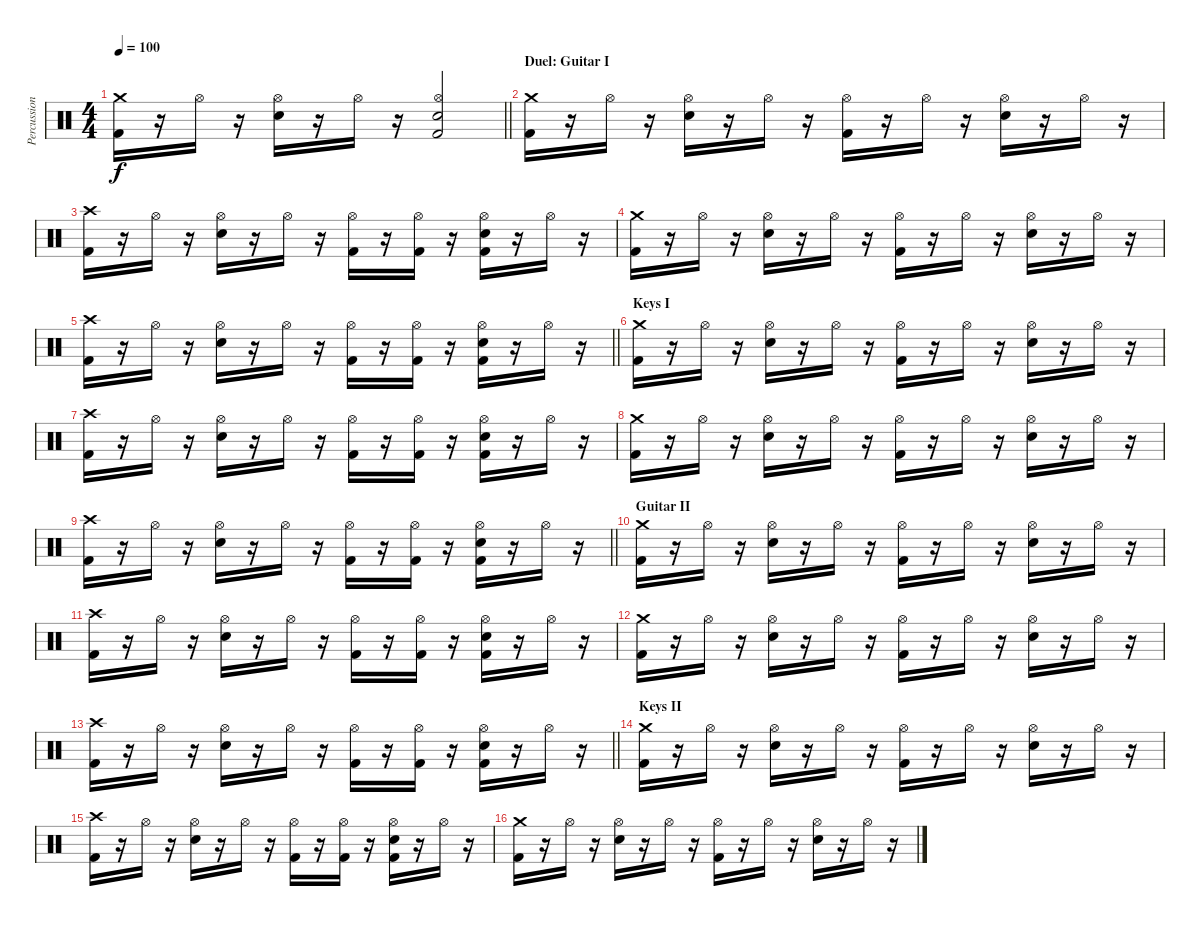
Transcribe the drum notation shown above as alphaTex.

\track ("Percussion" "Percussion") {instrument percussion}
\staff {score}
\articulation defaults
\ts (4 4)
\tempo 100
\clef neutral
\barLineRight lightlight
\ks c
("Crash medium (hit)" "Kick (hit) 2").16{dy f} r.16 "Hi-Hat (open)".16 r.16 ("Hi-Hat (open)" "Electric Snare (hit)").16 r.16 "Hi-Hat (open)".16 r.16 ("Hi-Hat (open)" "Electric Snare (hit)" "Kick (hit) 2").2 |
\section ("" "Duel: Guitar I")
("Crash medium (hit)" "Kick (hit) 2").16 r.16 "Hi-Hat (open)".16 r.16 ("Hi-Hat (open)" "Electric Snare (hit)").16 r.16 "Hi-Hat (open)".16 r.16 ("Hi-Hat (open)" "Kick (hit) 2").16 r.16 "Hi-Hat (open)".16 r.16 ("Hi-Hat (open)" "Electric Snare (hit)").16 r.16 "Hi-Hat (open)".16 r.16 |
("Crash high (hit)" "Kick (hit) 2").16 r.16 "Hi-Hat (open)".16 r.16 ("Hi-Hat (open)" "Electric Snare (hit)").16 r.16 "Hi-Hat (open)".16 r.16 ("Hi-Hat (open)" "Kick (hit) 2").16 r.16 ("Hi-Hat (open)" "Kick (hit) 2").16 r.16 ("Hi-Hat (open)" "Electric Snare (hit)" "Kick (hit) 2").16 r.16 "Hi-Hat (open)".16 r.16 |
("Crash medium (hit)" "Kick (hit) 2").16 r.16 "Hi-Hat (open)".16 r.16 ("Hi-Hat (open)" "Electric Snare (hit)").16 r.16 "Hi-Hat (open)".16 r.16 ("Hi-Hat (open)" "Kick (hit) 2").16 r.16 "Hi-Hat (open)".16 r.16 ("Hi-Hat (open)" "Electric Snare (hit)").16 r.16 "Hi-Hat (open)".16 r.16 |
\barLineRight lightlight
("Crash high (hit)" "Kick (hit) 2").16 r.16 "Hi-Hat (open)".16 r.16 ("Hi-Hat (open)" "Electric Snare (hit)").16 r.16 "Hi-Hat (open)".16 r.16 ("Hi-Hat (open)" "Kick (hit) 2").16 r.16 ("Hi-Hat (open)" "Kick (hit) 2").16 r.16 ("Hi-Hat (open)" "Electric Snare (hit)" "Kick (hit) 2").16 r.16 "Hi-Hat (open)".16 r.16 |
\section ("" "Keys I")
("Crash medium (hit)" "Kick (hit) 2").16 r.16 "Hi-Hat (open)".16 r.16 ("Hi-Hat (open)" "Electric Snare (hit)").16 r.16 "Hi-Hat (open)".16 r.16 ("Hi-Hat (open)" "Kick (hit) 2").16 r.16 "Hi-Hat (open)".16 r.16 ("Hi-Hat (open)" "Electric Snare (hit)").16 r.16 "Hi-Hat (open)".16 r.16 |
("Crash high (hit)" "Kick (hit) 2").16 r.16 "Hi-Hat (open)".16 r.16 ("Hi-Hat (open)" "Electric Snare (hit)").16 r.16 "Hi-Hat (open)".16 r.16 ("Hi-Hat (open)" "Kick (hit) 2").16 r.16 ("Hi-Hat (open)" "Kick (hit) 2").16 r.16 ("Hi-Hat (open)" "Electric Snare (hit)" "Kick (hit) 2").16 r.16 "Hi-Hat (open)".16 r.16 |
("Crash medium (hit)" "Kick (hit) 2").16 r.16 "Hi-Hat (open)".16 r.16 ("Hi-Hat (open)" "Electric Snare (hit)").16 r.16 "Hi-Hat (open)".16 r.16 ("Hi-Hat (open)" "Kick (hit) 2").16 r.16 "Hi-Hat (open)".16 r.16 ("Hi-Hat (open)" "Electric Snare (hit)").16 r.16 "Hi-Hat (open)".16 r.16 |
\barLineRight lightlight
("Crash high (hit)" "Kick (hit) 2").16 r.16 "Hi-Hat (open)".16 r.16 ("Hi-Hat (open)" "Electric Snare (hit)").16 r.16 "Hi-Hat (open)".16 r.16 ("Hi-Hat (open)" "Kick (hit) 2").16 r.16 ("Hi-Hat (open)" "Kick (hit) 2").16 r.16 ("Hi-Hat (open)" "Electric Snare (hit)" "Kick (hit) 2").16 r.16 "Hi-Hat (open)".16 r.16 |
\section ("" "Guitar II")
("Crash medium (hit)" "Kick (hit) 2").16 r.16 "Hi-Hat (open)".16 r.16 ("Hi-Hat (open)" "Electric Snare (hit)").16 r.16 "Hi-Hat (open)".16 r.16 ("Hi-Hat (open)" "Kick (hit) 2").16 r.16 "Hi-Hat (open)".16 r.16 ("Hi-Hat (open)" "Electric Snare (hit)").16 r.16 "Hi-Hat (open)".16 r.16 |
("Crash high (hit)" "Kick (hit) 2").16 r.16 "Hi-Hat (open)".16 r.16 ("Hi-Hat (open)" "Electric Snare (hit)").16 r.16 "Hi-Hat (open)".16 r.16 ("Hi-Hat (open)" "Kick (hit) 2").16 r.16 ("Hi-Hat (open)" "Kick (hit) 2").16 r.16 ("Hi-Hat (open)" "Electric Snare (hit)" "Kick (hit) 2").16 r.16 "Hi-Hat (open)".16 r.16 |
("Crash medium (hit)" "Kick (hit) 2").16 r.16 "Hi-Hat (open)".16 r.16 ("Hi-Hat (open)" "Electric Snare (hit)").16 r.16 "Hi-Hat (open)".16 r.16 ("Hi-Hat (open)" "Kick (hit) 2").16 r.16 "Hi-Hat (open)".16 r.16 ("Hi-Hat (open)" "Electric Snare (hit)").16 r.16 "Hi-Hat (open)".16 r.16 |
\barLineRight lightlight
("Crash high (hit)" "Kick (hit) 2").16 r.16 "Hi-Hat (open)".16 r.16 ("Hi-Hat (open)" "Electric Snare (hit)").16 r.16 "Hi-Hat (open)".16 r.16 ("Hi-Hat (open)" "Kick (hit) 2").16 r.16 ("Hi-Hat (open)" "Kick (hit) 2").16 r.16 ("Hi-Hat (open)" "Electric Snare (hit)" "Kick (hit) 2").16 r.16 "Hi-Hat (open)".16 r.16 |
\section ("" "Keys II")
("Crash medium (hit)" "Kick (hit) 2").16 r.16 "Hi-Hat (open)".16 r.16 ("Hi-Hat (open)" "Electric Snare (hit)").16 r.16 "Hi-Hat (open)".16 r.16 ("Hi-Hat (open)" "Kick (hit) 2").16 r.16 "Hi-Hat (open)".16 r.16 ("Hi-Hat (open)" "Electric Snare (hit)").16 r.16 "Hi-Hat (open)".16 r.16 |
("Crash high (hit)" "Kick (hit) 2").16 r.16 "Hi-Hat (open)".16 r.16 ("Hi-Hat (open)" "Electric Snare (hit)").16 r.16 "Hi-Hat (open)".16 r.16 ("Hi-Hat (open)" "Kick (hit) 2").16 r.16 ("Hi-Hat (open)" "Kick (hit) 2").16 r.16 ("Hi-Hat (open)" "Electric Snare (hit)" "Kick (hit) 2").16 r.16 "Hi-Hat (open)".16 r.16 |
("Crash medium (hit)" "Kick (hit) 2").16 r.16 "Hi-Hat (open)".16 r.16 ("Hi-Hat (open)" "Electric Snare (hit)").16 r.16 "Hi-Hat (open)".16 r.16 ("Hi-Hat (open)" "Kick (hit) 2").16 r.16 "Hi-Hat (open)".16 r.16 ("Hi-Hat (open)" "Electric Snare (hit)").16 r.16 "Hi-Hat (open)".16 r.16
